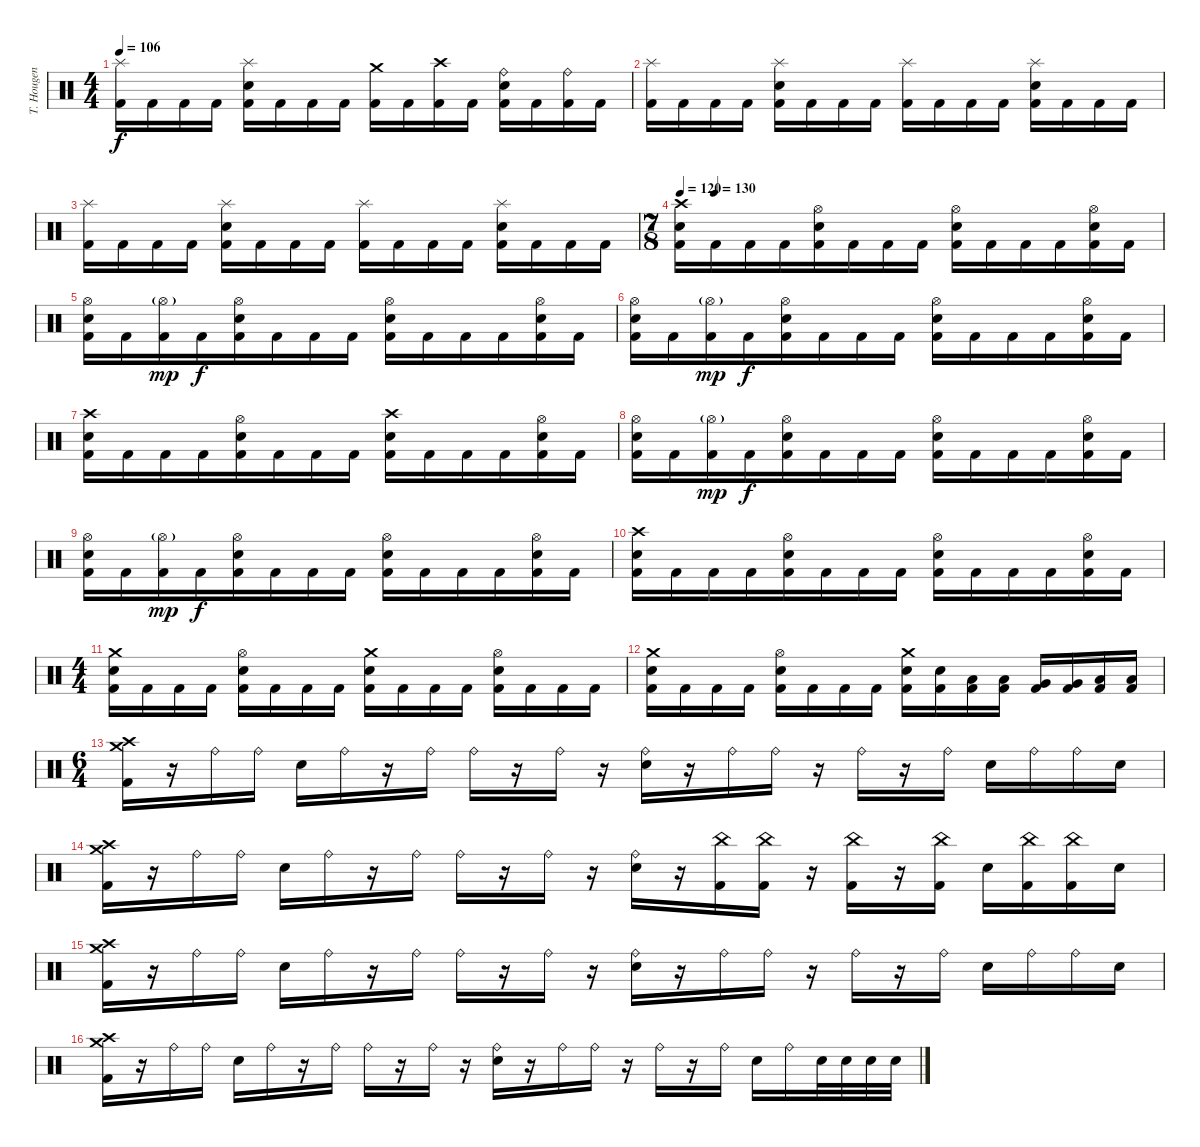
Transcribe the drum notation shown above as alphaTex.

\track ("T. Hougen - Drums" "T. Hougen ") {instrument percussion}
\staff {score}
\articulation defaults
\ts (4 4)
\tempo 106
\clef neutral
\ks c
("Splash (hit)" "Kick (hit) 2").16{dy f} "Kick (hit) 2".16 "Kick (hit) 2".16 "Kick (hit) 2".16 ("Splash (hit)" "Electric Snare (hit)" "Kick (hit) 2").16 "Kick (hit) 2".16 "Kick (hit) 2".16 "Kick (hit) 2".16 ("Crash medium (hit)" "Kick (hit) 2").16 "Kick (hit) 2".16 ("Crash high (hit)" "Kick (hit) 2").16 "Kick (hit) 2".16 ("Ride (bell)" "Electric Snare (hit)" "Kick (hit) 2").16 "Kick (hit) 2".16 ("Ride (bell)" "Kick (hit) 2").16 "Kick (hit) 2".16 |
("Splash (hit)" "Kick (hit) 2").16 "Kick (hit) 2".16 "Kick (hit) 2".16 "Kick (hit) 2".16 ("Splash (hit)" "Electric Snare (hit)" "Kick (hit) 2").16 "Kick (hit) 2".16 "Kick (hit) 2".16 "Kick (hit) 2".16 ("Splash (hit)" "Kick (hit) 2").16 "Kick (hit) 2".16 "Kick (hit) 2".16 "Kick (hit) 2".16 ("Splash (hit)" "Electric Snare (hit)" "Kick (hit) 2").16 "Kick (hit) 2".16 "Kick (hit) 2".16 "Kick (hit) 2".16 |
("Splash (hit)" "Kick (hit) 2").16 "Kick (hit) 2".16 "Kick (hit) 2".16 "Kick (hit) 2".16 ("Splash (hit)" "Electric Snare (hit)" "Kick (hit) 2").16 "Kick (hit) 2".16 "Kick (hit) 2".16 "Kick (hit) 2".16 ("Splash (hit)" "Kick (hit) 2").16 "Kick (hit) 2".16 "Kick (hit) 2".16 "Kick (hit) 2".16 ("Splash (hit)" "Electric Snare (hit)" "Kick (hit) 2").16 "Kick (hit) 2".16 "Kick (hit) 2".16 "Kick (hit) 2".16 |
\ts (7 8)
\tempo 120
\tempo (130 0.07142857142857142)
("Crash high (hit)" "Electric Snare (hit)" "Kick (hit) 2").16{volume 13} "Kick (hit) 2".16 "Kick (hit) 2".16 "Kick (hit) 2".16 ("Hi-Hat (open)" "Electric Snare (hit)" "Kick (hit) 2").16 "Kick (hit) 2".16 "Kick (hit) 2".16 "Kick (hit) 2".16 ("Hi-Hat (open)" "Electric Snare (hit)" "Kick (hit) 2").16 "Kick (hit) 2".16 "Kick (hit) 2".16 "Kick (hit) 2".16 ("Hi-Hat (open)" "Electric Snare (hit)" "Kick (hit) 2").16 "Kick (hit) 2".16 |
("Hi-Hat (open)" "Electric Snare (hit)" "Kick (hit) 2").16 "Kick (hit) 2".16 ("Hi-Hat (open)"{g} "Kick (hit) 2").16{dy mp} "Kick (hit) 2".16{dy f} ("Hi-Hat (open)" "Electric Snare (hit)" "Kick (hit) 2").16 "Kick (hit) 2".16 "Kick (hit) 2".16 "Kick (hit) 2".16 ("Hi-Hat (open)" "Electric Snare (hit)" "Kick (hit) 2").16 "Kick (hit) 2".16 "Kick (hit) 2".16 "Kick (hit) 2".16 ("Hi-Hat (open)" "Electric Snare (hit)" "Kick (hit) 2").16 "Kick (hit) 2".16 |
("Hi-Hat (open)" "Electric Snare (hit)" "Kick (hit) 2").16 "Kick (hit) 2".16 ("Hi-Hat (open)"{g} "Kick (hit) 2").16{dy mp} "Kick (hit) 2".16{dy f} ("Hi-Hat (open)" "Electric Snare (hit)" "Kick (hit) 2").16 "Kick (hit) 2".16 "Kick (hit) 2".16 "Kick (hit) 2".16 ("Hi-Hat (open)" "Electric Snare (hit)" "Kick (hit) 2").16 "Kick (hit) 2".16 "Kick (hit) 2".16 "Kick (hit) 2".16 ("Hi-Hat (open)" "Electric Snare (hit)" "Kick (hit) 2").16 "Kick (hit) 2".16 |
("Crash high (hit)" "Electric Snare (hit)" "Kick (hit) 2").16 "Kick (hit) 2".16 "Kick (hit) 2".16 "Kick (hit) 2".16 ("Hi-Hat (open)" "Electric Snare (hit)" "Kick (hit) 2").16 "Kick (hit) 2".16 "Kick (hit) 2".16 "Kick (hit) 2".16 ("Crash high (hit)" "Electric Snare (hit)" "Kick (hit) 2").16 "Kick (hit) 2".16 "Kick (hit) 2".16 "Kick (hit) 2".16 ("Hi-Hat (open)" "Electric Snare (hit)" "Kick (hit) 2").16 "Kick (hit) 2".16 |
("Hi-Hat (open)" "Electric Snare (hit)" "Kick (hit) 2").16 "Kick (hit) 2".16 ("Hi-Hat (open)"{g} "Kick (hit) 2").16{dy mp} "Kick (hit) 2".16{dy f} ("Hi-Hat (open)" "Electric Snare (hit)" "Kick (hit) 2").16 "Kick (hit) 2".16 "Kick (hit) 2".16 "Kick (hit) 2".16 ("Hi-Hat (open)" "Electric Snare (hit)" "Kick (hit) 2").16 "Kick (hit) 2".16 "Kick (hit) 2".16 "Kick (hit) 2".16 ("Hi-Hat (open)" "Electric Snare (hit)" "Kick (hit) 2").16 "Kick (hit) 2".16 |
("Hi-Hat (open)" "Electric Snare (hit)" "Kick (hit) 2").16 "Kick (hit) 2".16 ("Hi-Hat (open)"{g} "Kick (hit) 2").16{dy mp} "Kick (hit) 2".16{dy f} ("Hi-Hat (open)" "Electric Snare (hit)" "Kick (hit) 2").16 "Kick (hit) 2".16 "Kick (hit) 2".16 "Kick (hit) 2".16 ("Hi-Hat (open)" "Electric Snare (hit)" "Kick (hit) 2").16 "Kick (hit) 2".16 "Kick (hit) 2".16 "Kick (hit) 2".16 ("Hi-Hat (open)" "Electric Snare (hit)" "Kick (hit) 2").16 "Kick (hit) 2".16 |
("Crash high (hit)" "Electric Snare (hit)" "Kick (hit) 2").16 "Kick (hit) 2".16 "Kick (hit) 2".16 "Kick (hit) 2".16 ("Hi-Hat (open)" "Electric Snare (hit)" "Kick (hit) 2").16 "Kick (hit) 2".16 "Kick (hit) 2".16 "Kick (hit) 2".16 ("Hi-Hat (open)" "Electric Snare (hit)" "Kick (hit) 2").16 "Kick (hit) 2".16 "Kick (hit) 2".16 "Kick (hit) 2".16 ("Hi-Hat (open)" "Electric Snare (hit)" "Kick (hit) 2").16 "Kick (hit) 2".16 |
\ts (4 4)
("Crash medium (hit)" "Electric Snare (hit)" "Kick (hit) 2").16 "Kick (hit) 2".16 "Kick (hit) 2".16 "Kick (hit) 2".16 ("Hi-Hat (open)" "Electric Snare (hit)" "Kick (hit) 2").16 "Kick (hit) 2".16 "Kick (hit) 2".16 "Kick (hit) 2".16 ("Crash medium (hit)" "Electric Snare (hit)" "Kick (hit) 2").16 "Kick (hit) 2".16 "Kick (hit) 2".16 "Kick (hit) 2".16 ("Hi-Hat (open)" "Electric Snare (hit)" "Kick (hit) 2").16 "Kick (hit) 2".16 "Kick (hit) 2".16 "Kick (hit) 2".16 |
("Crash medium (hit)" "Electric Snare (hit)" "Kick (hit) 2").16 "Kick (hit) 2".16 "Kick (hit) 2".16 "Kick (hit) 2".16 ("Hi-Hat (open)" "Electric Snare (hit)" "Kick (hit) 2").16 "Kick (hit) 2".16 "Kick (hit) 2".16 "Kick (hit) 2".16 ("Crash medium (hit)" "Electric Snare (hit)" "Kick (hit) 2").16 ("Electric Snare (hit)" "Kick (hit) 2").16 ("Low Tom (hit)" "Kick (hit) 2").16 ("Low Tom (hit)" "Kick (hit) 2").16 ("Very Low Tom (hit)" "Kick (hit) 2").16 ("Very Low Tom (hit)" "Kick (hit) 2").16 ("Low Floor Tom (hit)" "Kick (hit) 2").16 ("Low Floor Tom (hit)" "Kick (hit) 2").16 |
\ts (6 4)
("Crash medium (hit)" "Crash high (hit)" "Kick (hit) 2").16{volume 14} r.16 "Ride (bell)".16 "Ride (bell)".16 "Electric Snare (hit)".16 "Ride (bell)".16 r.16 "Ride (bell)".16 "Ride (bell)".16 r.16 "Ride (bell)".16 r.16 ("Ride (bell)" "Electric Snare (hit)").16 r.16 "Ride (bell)".16 "Ride (bell)".16 r.16 "Ride (bell)".16 r.16 "Ride (bell)".16 "Electric Snare (hit)".16 "Ride (bell)".16 "Ride (bell)".16 "Electric Snare (hit)".16 |
("Crash medium (hit)" "Crash high (hit)" "Kick (hit) 2").16 r.16 "Ride (bell)".16 "Ride (bell)".16 "Electric Snare (hit)".16 "Ride (bell)".16 r.16 "Ride (bell)".16 "Ride (bell)".16 r.16 "Ride (bell)".16 r.16 ("Ride (bell)" "Electric Snare (hit)").16 r.16 ("China (hit)" "Kick (hit) 2").16 ("China (hit)" "Kick (hit) 2").16 r.16 ("China (hit)" "Kick (hit) 2").16 r.16 ("China (hit)" "Kick (hit) 2").16 "Electric Snare (hit)".16 ("China (hit)" "Kick (hit) 2").16 ("China (hit)" "Kick (hit) 2").16 "Electric Snare (hit)".16 |
("Crash medium (hit)" "Crash high (hit)" "Kick (hit) 2").16 r.16 "Ride (bell)".16 "Ride (bell)".16 "Electric Snare (hit)".16 "Ride (bell)".16 r.16 "Ride (bell)".16 "Ride (bell)".16 r.16 "Ride (bell)".16 r.16 ("Ride (bell)" "Electric Snare (hit)").16 r.16 "Ride (bell)".16 "Ride (bell)".16 r.16 "Ride (bell)".16 r.16 "Ride (bell)".16 "Electric Snare (hit)".16 "Ride (bell)".16 "Ride (bell)".16 "Electric Snare (hit)".16 |
("Crash medium (hit)" "Crash high (hit)" "Kick (hit) 2").16 r.16 "Ride (bell)".16 "Ride (bell)".16 "Electric Snare (hit)".16 "Ride (bell)".16 r.16 "Ride (bell)".16 "Ride (bell)".16 r.16 "Ride (bell)".16 r.16 ("Ride (bell)" "Electric Snare (hit)").16 r.16 "Ride (bell)".16 "Ride (bell)".16 r.16 "Ride (bell)".16 r.16 "Ride (bell)".16 "Electric Snare (hit)".16 "Ride (bell)".16 "Electric Snare (hit)".32 "Electric Snare (hit)".32 "Electric Snare (hit)".32 "Electric Snare (hit)".32
